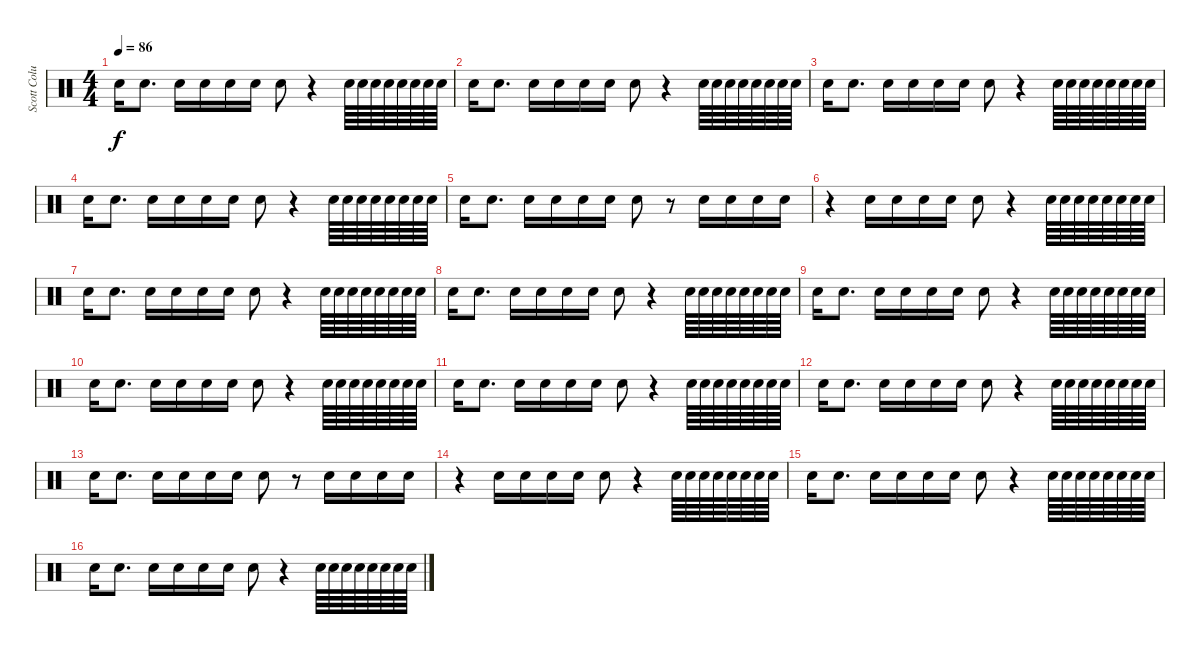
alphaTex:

\track ("Scott Columbus - Drums" "Scott Colu") {instrument percussion}
\staff {score}
\articulation defaults
\ts (4 4)
\tempo 86
\clef neutral
\ks c "Snare (hit) 2".16{dy f} "Snare (hit) 2".8{d} "Snare (hit) 2".16 "Snare (hit) 2".16 "Snare (hit) 2".16 "Snare (hit) 2".16 "Snare (hit) 2".8
r.4 "Snare (hit) 2".64 "Snare (hit) 2".64 "Snare (hit) 2".64 "Snare (hit) 2".64 "Snare (hit) 2".64 "Snare (hit) 2".64 "Snare (hit) 2".64 "Snare (hit) 2".64 |
"Snare (hit) 2".16 "Snare (hit) 2".8{d} "Snare (hit) 2".16 "Snare (hit) 2".16 "Snare (hit) 2".16 "Snare (hit) 2".16 "Snare (hit) 2".8 r.4 "Snare (hit) 2".64 "Snare (hit) 2".64 "Snare (hit) 2".64 "Snare (hit) 2".64 "Snare (hit) 2".64 "Snare (hit) 2".64 "Snare (hit) 2".64 "Snare (hit) 2".64 |
"Snare (hit) 2".16 "Snare (hit) 2".8{d} "Snare (hit) 2".16 "Snare (hit) 2".16 "Snare (hit) 2".16 "Snare (hit) 2".16 "Snare (hit) 2".8 r.4 "Snare (hit) 2".64 "Snare (hit) 2".64 "Snare (hit) 2".64 "Snare (hit) 2".64 "Snare (hit) 2".64 "Snare (hit) 2".64 "Snare (hit) 2".64 "Snare (hit) 2".64 |
"Snare (hit) 2".16 "Snare (hit) 2".8{d} "Snare (hit) 2".16 "Snare (hit) 2".16 "Snare (hit) 2".16 "Snare (hit) 2".16 "Snare (hit) 2".8 r.4 "Snare (hit) 2".64 "Snare (hit) 2".64 "Snare (hit) 2".64 "Snare (hit) 2".64 "Snare (hit) 2".64 "Snare (hit) 2".64 "Snare (hit) 2".64 "Snare (hit) 2".64 |
"Snare (hit) 2".16 "Snare (hit) 2".8{d} "Snare (hit) 2".16 "Snare (hit) 2".16 "Snare (hit) 2".16 "Snare (hit) 2".16 "Snare (hit) 2".8 r.8 "Snare (hit) 2".16 "Snare (hit) 2".16 "Snare (hit) 2".16 "Snare (hit) 2".16 |
r.4 "Snare (hit) 2".16 "Snare (hit) 2".16 "Snare (hit) 2".16 "Snare (hit) 2".16 "Snare (hit) 2".8 r.4 "Snare (hit) 2".64 "Snare (hit) 2".64 "Snare (hit) 2".64 "Snare (hit) 2".64 "Snare (hit) 2".64 "Snare (hit) 2".64 "Snare (hit) 2".64 "Snare (hit) 2".64 |
"Snare (hit) 2".16 "Snare (hit) 2".8{d} "Snare (hit) 2".16 "Snare (hit) 2".16 "Snare (hit) 2".16 "Snare (hit) 2".16 "Snare (hit) 2".8 r.4 "Snare (hit) 2".64 "Snare (hit) 2".64 "Snare (hit) 2".64 "Snare (hit) 2".64 "Snare (hit) 2".64 "Snare (hit) 2".64 "Snare (hit) 2".64 "Snare (hit) 2".64 |
"Snare (hit) 2".16 "Snare (hit) 2".8{d} "Snare (hit) 2".16 "Snare (hit) 2".16 "Snare (hit) 2".16 "Snare (hit) 2".16 "Snare (hit) 2".8 r.4 "Snare (hit) 2".64 "Snare (hit) 2".64 "Snare (hit) 2".64 "Snare (hit) 2".64 "Snare (hit) 2".64 "Snare (hit) 2".64 "Snare (hit) 2".64 "Snare (hit) 2".64 |
"Snare (hit) 2".16 "Snare (hit) 2".8{d} "Snare (hit) 2".16 "Snare (hit) 2".16 "Snare (hit) 2".16 "Snare (hit) 2".16 "Snare (hit) 2".8 r.4 "Snare (hit) 2".64 "Snare (hit) 2".64 "Snare (hit) 2".64 "Snare (hit) 2".64 "Snare (hit) 2".64 "Snare (hit) 2".64 "Snare (hit) 2".64 "Snare (hit) 2".64 |
"Snare (hit) 2".16 "Snare (hit) 2".8{d} "Snare (hit) 2".16 "Snare (hit) 2".16 "Snare (hit) 2".16 "Snare (hit) 2".16 "Snare (hit) 2".8 r.4 "Snare (hit) 2".64 "Snare (hit) 2".64 "Snare (hit) 2".64 "Snare (hit) 2".64 "Snare (hit) 2".64 "Snare (hit) 2".64 "Snare (hit) 2".64 "Snare (hit) 2".64 |
"Snare (hit) 2".16 "Snare (hit) 2".8{d} "Snare (hit) 2".16 "Snare (hit) 2".16 "Snare (hit) 2".16 "Snare (hit) 2".16 "Snare (hit) 2".8 r.4 "Snare (hit) 2".64 "Snare (hit) 2".64 "Snare (hit) 2".64 "Snare (hit) 2".64 "Snare (hit) 2".64 "Snare (hit) 2".64 "Snare (hit) 2".64 "Snare (hit) 2".64 |
"Snare (hit) 2".16 "Snare (hit) 2".8{d} "Snare (hit) 2".16 "Snare (hit) 2".16 "Snare (hit) 2".16 "Snare (hit) 2".16 "Snare (hit) 2".8 r.4 "Snare (hit) 2".64 "Snare (hit) 2".64 "Snare (hit) 2".64 "Snare (hit) 2".64 "Snare (hit) 2".64 "Snare (hit) 2".64 "Snare (hit) 2".64 "Snare (hit) 2".64 |
"Snare (hit) 2".16 "Snare (hit) 2".8{d} "Snare (hit) 2".16 "Snare (hit) 2".16 "Snare (hit) 2".16 "Snare (hit) 2".16 "Snare (hit) 2".8 r.8 "Snare (hit) 2".16 "Snare (hit) 2".16 "Snare (hit) 2".16 "Snare (hit) 2".16 |
r.4 "Snare (hit) 2".16 "Snare (hit) 2".16 "Snare (hit) 2".16 "Snare (hit) 2".16 "Snare (hit) 2".8 r.4 "Snare (hit) 2".64 "Snare (hit) 2".64 "Snare (hit) 2".64 "Snare (hit) 2".64 "Snare (hit) 2".64 "Snare (hit) 2".64 "Snare (hit) 2".64 "Snare (hit) 2".64 |
"Snare (hit) 2".16 "Snare (hit) 2".8{d} "Snare (hit) 2".16 "Snare (hit) 2".16 "Snare (hit) 2".16 "Snare (hit) 2".16 "Snare (hit) 2".8 r.4 "Snare (hit) 2".64 "Snare (hit) 2".64 "Snare (hit) 2".64 "Snare (hit) 2".64 "Snare (hit) 2".64 "Snare (hit) 2".64 "Snare (hit) 2".64 "Snare (hit) 2".64 |
"Snare (hit) 2".16 "Snare (hit) 2".8{d} "Snare (hit) 2".16 "Snare (hit) 2".16 "Snare (hit) 2".16 "Snare (hit) 2".16 "Snare (hit) 2".8 r.4 "Snare (hit) 2".64 "Snare (hit) 2".64 "Snare (hit) 2".64 "Snare (hit) 2".64 "Snare (hit) 2".64 "Snare (hit) 2".64 "Snare (hit) 2".64 "Snare (hit) 2".64
